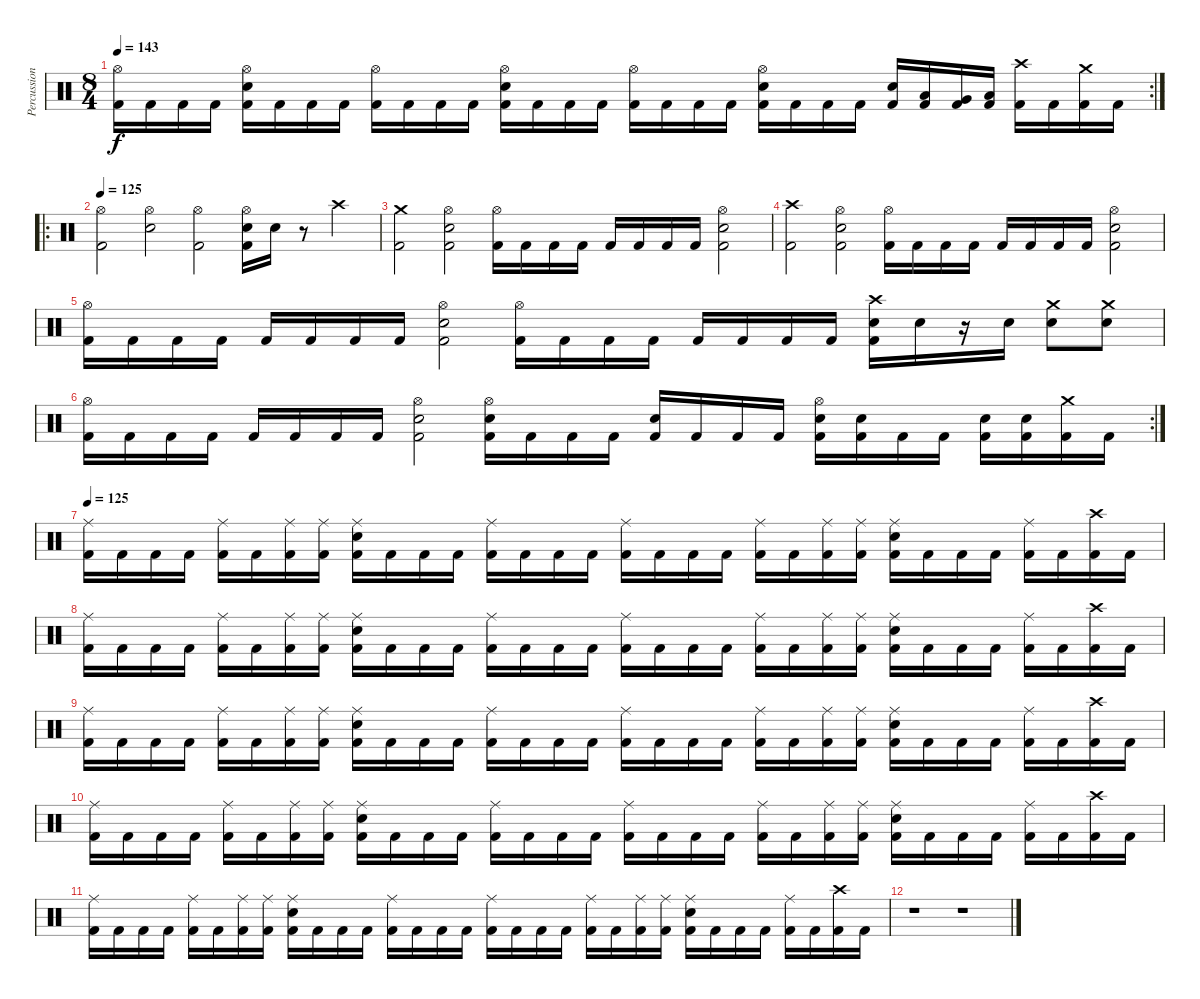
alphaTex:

\track ("Percussion" "Percussion") {instrument percussion}
\staff {score}
\articulation defaults
\rc 2
\ts (8 4)
\tempo 143
\clef neutral
\ks c
("Hi-Hat (open)" "Kick (hit) 2").16{dy f} "Kick (hit) 2".16 "Kick (hit) 2".16 "Kick (hit) 2".16 ("Hi-Hat (open)" "Electric Snare (hit)" "Kick (hit) 2").16 "Kick (hit) 2".16 "Kick (hit) 2".16 "Kick (hit) 2".16 ("Hi-Hat (open)" "Kick (hit) 2").16 "Kick (hit) 2".16 "Kick (hit) 2".16 "Kick (hit) 2".16 ("Hi-Hat (open)" "Electric Snare (hit)" "Kick (hit) 2").16 "Kick (hit) 2".16 "Kick (hit) 2".16 "Kick (hit) 2".16 ("Hi-Hat (open)" "Kick (hit) 2").16 "Kick (hit) 2".16 "Kick (hit) 2".16 "Kick (hit) 2".16 ("Hi-Hat (open)" "Electric Snare (hit)" "Kick (hit) 2").16 "Kick (hit) 2".16 "Kick (hit) 2".16 "Kick (hit) 2".16 ("Electric Snare (hit)" "Kick (hit) 2").16 ("Low Tom (hit)" "Kick (hit) 2").16 ("Very Low Tom (hit)" "Kick (hit) 2").16 ("Low Floor Tom (hit)" "Kick (hit) 2").16 ("Crash high (hit)" "Kick (hit) 2").16 "Kick (hit) 2".16 ("Crash medium (hit)" "Kick (hit) 2").16 "Kick (hit) 2".16 |
\ro
\tempo 125
("Hi-Hat (open)" "Kick (hit) 2").2 ("Hi-Hat (open)" "Electric Snare (hit)").2 ("Hi-Hat (open)" "Kick (hit) 2").2 ("Hi-Hat (open)" "Electric Snare (hit)" "Kick (hit) 2").16 "Electric Snare (hit)".16 r.8 "Crash high (hit)".4 |
("Crash medium (hit)" "Kick (hit) 2").2 ("Hi-Hat (open)" "Electric Snare (hit)" "Kick (hit) 2").2 ("Hi-Hat (open)" "Kick (hit) 2").16 "Kick (hit) 2".16 "Kick (hit) 2".16 "Kick (hit) 2".16 "Kick (hit) 2".16 "Kick (hit) 2".16 "Kick (hit) 2".16 "Kick (hit) 2".16 ("Hi-Hat (open)" "Electric Snare (hit)" "Kick (hit) 2").2 |
("Crash high (hit)" "Kick (hit) 2").2 ("Hi-Hat (open)" "Electric Snare (hit)" "Kick (hit) 2").2 ("Hi-Hat (open)" "Kick (hit) 2").16 "Kick (hit) 2".16 "Kick (hit) 2".16 "Kick (hit) 2".16 "Kick (hit) 2".16 "Kick (hit) 2".16 "Kick (hit) 2".16 "Kick (hit) 2".16 ("Hi-Hat (open)" "Electric Snare (hit)" "Kick (hit) 2").2 |
("Hi-Hat (open)" "Kick (hit) 2").16 "Kick (hit) 2".16 "Kick (hit) 2".16 "Kick (hit) 2".16 "Kick (hit) 2".16 "Kick (hit) 2".16 "Kick (hit) 2".16 "Kick (hit) 2".16 ("Hi-Hat (open)" "Electric Snare (hit)" "Kick (hit) 2").2 ("Hi-Hat (open)" "Kick (hit) 2").16 "Kick (hit) 2".16 "Kick (hit) 2".16 "Kick (hit) 2".16 "Kick (hit) 2".16 "Kick (hit) 2".16 "Kick (hit) 2".16 "Kick (hit) 2".16 ("Crash high (hit)" "Electric Snare (hit)" "Kick (hit) 2").16 "Electric Snare (hit)".16 r.16 "Electric Snare (hit)".16 ("Crash medium (hit)" "Electric Snare (hit)").8 ("Crash medium (hit)" "Electric Snare (hit)").8 |
\rc 2
("Hi-Hat (open)" "Kick (hit) 2").16 "Kick (hit) 2".16 "Kick (hit) 2".16 "Kick (hit) 2".16 "Kick (hit) 2".16 "Kick (hit) 2".16 "Kick (hit) 2".16 "Kick (hit) 2".16 ("Hi-Hat (open)" "Electric Snare (hit)" "Kick (hit) 2").2 ("Hi-Hat (open)" "Electric Snare (hit)" "Kick (hit) 2").16 "Kick (hit) 2".16 "Kick (hit) 2".16 "Kick (hit) 2".16 ("Electric Snare (hit)" "Kick (hit) 2").16 "Kick (hit) 2".16 "Kick (hit) 2".16 "Kick (hit) 2".16 ("Hi-Hat (open)" "Electric Snare (hit)" "Kick (hit) 2").16 ("Electric Snare (hit)" "Kick (hit) 2").16 "Kick (hit) 2".16 "Kick (hit) 2".16 ("Electric Snare (hit)" "Kick (hit) 2").16 ("Electric Snare (hit)" "Kick (hit) 2").16 ("Crash medium (hit)" "Kick (hit) 2").16 "Kick (hit) 2".16 |
\tempo 125
("Ride (middle)" "Kick (hit) 2").16 "Kick (hit) 2".16 "Kick (hit) 2".16 "Kick (hit) 2".16 ("Ride (middle)" "Kick (hit) 2").16 "Kick (hit) 2".16 ("Ride (middle)" "Kick (hit) 2").16 ("Ride (middle)" "Kick (hit) 2").16 ("Ride (middle)" "Electric Snare (hit)" "Kick (hit) 2").16 "Kick (hit) 2".16 "Kick (hit) 2".16 "Kick (hit) 2".16 ("Ride (middle)" "Kick (hit) 2").16 "Kick (hit) 2".16 "Kick (hit) 2".16 "Kick (hit) 2".16 ("Ride (middle)" "Kick (hit) 2").16 "Kick (hit) 2".16 "Kick (hit) 2".16 "Kick (hit) 2".16 ("Ride (middle)" "Kick (hit) 2").16 "Kick (hit) 2".16 ("Ride (middle)" "Kick (hit) 2").16 ("Ride (middle)" "Kick (hit) 2").16 ("Ride (middle)" "Electric Snare (hit)" "Kick (hit) 2").16 "Kick (hit) 2".16 "Kick (hit) 2".16 "Kick (hit) 2".16 ("Ride (middle)" "Kick (hit) 2").16 "Kick (hit) 2".16 ("Crash high (hit)" "Kick (hit) 2").16 "Kick (hit) 2".16 |
("Ride (middle)" "Kick (hit) 2").16 "Kick (hit) 2".16 "Kick (hit) 2".16 "Kick (hit) 2".16 ("Ride (middle)" "Kick (hit) 2").16 "Kick (hit) 2".16 ("Ride (middle)" "Kick (hit) 2").16 ("Ride (middle)" "Kick (hit) 2").16 ("Ride (middle)" "Electric Snare (hit)" "Kick (hit) 2").16 "Kick (hit) 2".16 "Kick (hit) 2".16 "Kick (hit) 2".16 ("Ride (middle)" "Kick (hit) 2").16 "Kick (hit) 2".16 "Kick (hit) 2".16 "Kick (hit) 2".16 ("Ride (middle)" "Kick (hit) 2").16 "Kick (hit) 2".16 "Kick (hit) 2".16 "Kick (hit) 2".16 ("Ride (middle)" "Kick (hit) 2").16 "Kick (hit) 2".16 ("Ride (middle)" "Kick (hit) 2").16 ("Ride (middle)" "Kick (hit) 2").16 ("Ride (middle)" "Electric Snare (hit)" "Kick (hit) 2").16 "Kick (hit) 2".16 "Kick (hit) 2".16 "Kick (hit) 2".16 ("Ride (middle)" "Kick (hit) 2").16 "Kick (hit) 2".16 ("Crash high (hit)" "Kick (hit) 2").16 "Kick (hit) 2".16 |
("Ride (middle)" "Kick (hit) 2").16 "Kick (hit) 2".16 "Kick (hit) 2".16 "Kick (hit) 2".16 ("Ride (middle)" "Kick (hit) 2").16 "Kick (hit) 2".16 ("Ride (middle)" "Kick (hit) 2").16 ("Ride (middle)" "Kick (hit) 2").16 ("Ride (middle)" "Electric Snare (hit)" "Kick (hit) 2").16 "Kick (hit) 2".16 "Kick (hit) 2".16 "Kick (hit) 2".16 ("Ride (middle)" "Kick (hit) 2").16 "Kick (hit) 2".16 "Kick (hit) 2".16 "Kick (hit) 2".16 ("Ride (middle)" "Kick (hit) 2").16 "Kick (hit) 2".16 "Kick (hit) 2".16 "Kick (hit) 2".16 ("Ride (middle)" "Kick (hit) 2").16 "Kick (hit) 2".16 ("Ride (middle)" "Kick (hit) 2").16 ("Ride (middle)" "Kick (hit) 2").16 ("Ride (middle)" "Electric Snare (hit)" "Kick (hit) 2").16 "Kick (hit) 2".16 "Kick (hit) 2".16 "Kick (hit) 2".16 ("Ride (middle)" "Kick (hit) 2").16 "Kick (hit) 2".16 ("Crash high (hit)" "Kick (hit) 2").16 "Kick (hit) 2".16 |
("Ride (middle)" "Kick (hit) 2").16 "Kick (hit) 2".16 "Kick (hit) 2".16 "Kick (hit) 2".16 ("Ride (middle)" "Kick (hit) 2").16 "Kick (hit) 2".16 ("Ride (middle)" "Kick (hit) 2").16 ("Ride (middle)" "Kick (hit) 2").16 ("Ride (middle)" "Electric Snare (hit)" "Kick (hit) 2").16 "Kick (hit) 2".16 "Kick (hit) 2".16 "Kick (hit) 2".16 ("Ride (middle)" "Kick (hit) 2").16 "Kick (hit) 2".16 "Kick (hit) 2".16 "Kick (hit) 2".16 ("Ride (middle)" "Kick (hit) 2").16 "Kick (hit) 2".16 "Kick (hit) 2".16 "Kick (hit) 2".16 ("Ride (middle)" "Kick (hit) 2").16 "Kick (hit) 2".16 ("Ride (middle)" "Kick (hit) 2").16 ("Ride (middle)" "Kick (hit) 2").16 ("Ride (middle)" "Electric Snare (hit)" "Kick (hit) 2").16 "Kick (hit) 2".16 "Kick (hit) 2".16 "Kick (hit) 2".16 ("Ride (middle)" "Kick (hit) 2").16 "Kick (hit) 2".16 ("Crash high (hit)" "Kick (hit) 2").16 "Kick (hit) 2".16 |
("Ride (middle)" "Kick (hit) 2").16 "Kick (hit) 2".16 "Kick (hit) 2".16 "Kick (hit) 2".16 ("Ride (middle)" "Kick (hit) 2").16 "Kick (hit) 2".16 ("Ride (middle)" "Kick (hit) 2").16 ("Ride (middle)" "Kick (hit) 2").16 ("Ride (middle)" "Electric Snare (hit)" "Kick (hit) 2").16 "Kick (hit) 2".16 "Kick (hit) 2".16 "Kick (hit) 2".16 ("Ride (middle)" "Kick (hit) 2").16 "Kick (hit) 2".16 "Kick (hit) 2".16 "Kick (hit) 2".16 ("Ride (middle)" "Kick (hit) 2").16 "Kick (hit) 2".16 "Kick (hit) 2".16 "Kick (hit) 2".16 ("Ride (middle)" "Kick (hit) 2").16 "Kick (hit) 2".16 ("Ride (middle)" "Kick (hit) 2").16 ("Ride (middle)" "Kick (hit) 2").16 ("Ride (middle)" "Electric Snare (hit)" "Kick (hit) 2").16 "Kick (hit) 2".16 "Kick (hit) 2".16 "Kick (hit) 2".16 ("Ride (middle)" "Kick (hit) 2").16 "Kick (hit) 2".16 ("Crash high (hit)" "Kick (hit) 2").16 "Kick (hit) 2".16 |
r.1 r.1
